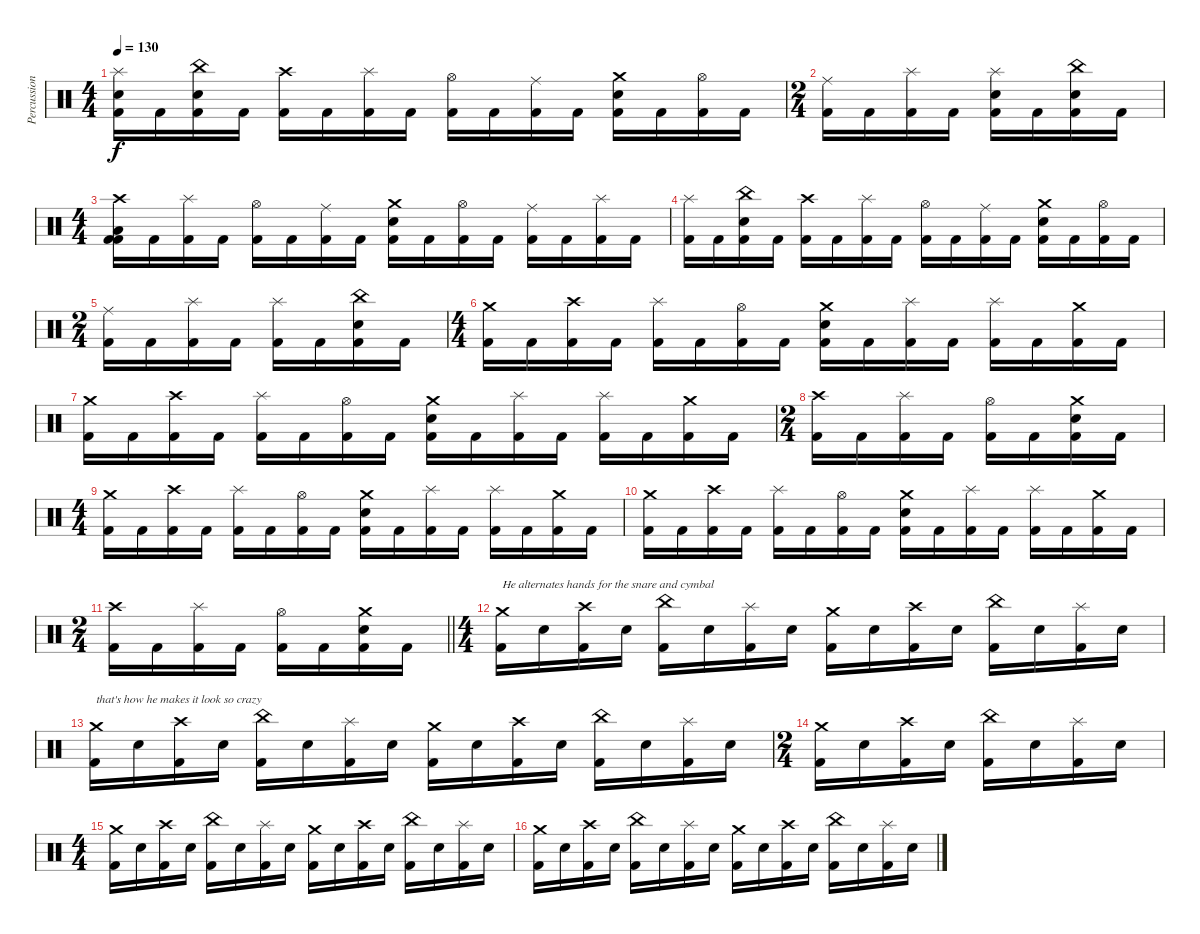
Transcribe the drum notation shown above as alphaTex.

\track ("Percussion" "Percussion") {instrument percussion}
\staff {score}
\articulation defaults
\ts (4 4)
\tempo 130
\clef neutral
\ks c
("Splash (hit)" "Electric Snare (hit)" "Kick (hit) 2").16{dy f} "Kick (hit) 2".16 ("China (hit)" "Electric Snare (hit)" "Kick (hit) 2").16 "Kick (hit) 2".16 ("Crash high (hit)" "Kick (hit) 2").16 "Kick (hit) 2".16 ("Splash (hit)" "Kick (hit) 2").16 "Kick (hit) 2".16 ("Hi-Hat (open)" "Kick (hit) 2").16 "Kick (hit) 2".16 ("Ride (middle)" "Kick (hit) 2").16 "Kick (hit) 2".16 ("Crash medium (hit)" "Electric Snare (hit)" "Kick (hit) 2").16 "Kick (hit) 2".16 ("Hi-Hat (open)" "Kick (hit) 2").16 "Kick (hit) 2".16 |
\ts (2 4)
("Ride (middle)" "Kick (hit) 2").16 "Kick (hit) 2".16 ("Splash (hit)" "Kick (hit) 2").16 "Kick (hit) 2".16 ("Splash (hit)" "Electric Snare (hit)" "Kick (hit) 2").16 "Kick (hit) 2".16 ("China (hit)" "Electric Snare (hit)" "Kick (hit) 2").16 "Kick (hit) 2".16 |
\ts (4 4)
("Crash high (hit)" "Low Floor Tom (hit)" "Kick (hit) 2" "Kick (hit) 2").16 "Kick (hit) 2".16 ("Splash (hit)" "Kick (hit) 2").16 "Kick (hit) 2".16 ("Hi-Hat (open)" "Kick (hit) 2").16 "Kick (hit) 2".16 ("Ride (middle)" "Kick (hit) 2").16 "Kick (hit) 2".16 ("Crash medium (hit)" "Electric Snare (hit)" "Kick (hit) 2").16 "Kick (hit) 2".16 ("Hi-Hat (open)" "Kick (hit) 2").16 "Kick (hit) 2".16 ("Ride (middle)" "Kick (hit) 2").16 "Kick (hit) 2".16 ("Splash (hit)" "Kick (hit) 2").16 "Kick (hit) 2".16 |
("Splash (hit)" "Kick (hit) 2").16 "Kick (hit) 2".16 ("China (hit)" "Electric Snare (hit)" "Kick (hit) 2").16 "Kick (hit) 2".16 ("Crash high (hit)" "Kick (hit) 2").16 "Kick (hit) 2".16 ("Splash (hit)" "Kick (hit) 2").16 "Kick (hit) 2".16 ("Hi-Hat (open)" "Kick (hit) 2").16 "Kick (hit) 2".16 ("Ride (middle)" "Kick (hit) 2").16 "Kick (hit) 2".16 ("Crash medium (hit)" "Electric Snare (hit)" "Kick (hit) 2").16 "Kick (hit) 2".16 ("Hi-Hat (open)" "Kick (hit) 2").16 "Kick (hit) 2".16 |
\ts (2 4)
("Ride (middle)" "Kick (hit) 2").16 "Kick (hit) 2".16 ("Splash (hit)" "Kick (hit) 2").16 "Kick (hit) 2".16 ("Splash (hit)" "Kick (hit) 2").16 "Kick (hit) 2".16 ("China (hit)" "Electric Snare (hit)" "Kick (hit) 2").16 "Kick (hit) 2".16 |
\ts (4 4)
("Crash medium (hit)" "Kick (hit) 2").16 "Kick (hit) 2".16 ("Crash high (hit)" "Kick (hit) 2").16 "Kick (hit) 2".16 ("Splash (hit)" "Kick (hit) 2").16 "Kick (hit) 2".16 ("Hi-Hat (open)" "Kick (hit) 2").16 "Kick (hit) 2".16 ("Crash medium (hit)" "Electric Snare (hit)" "Kick (hit) 2").16 "Kick (hit) 2".16 ("Splash (hit)" "Kick (hit) 2").16 "Kick (hit) 2".16 ("Splash (hit)" "Kick (hit) 2").16 "Kick (hit) 2".16 ("Crash medium (hit)" "Kick (hit) 2").16 "Kick (hit) 2".16 |
("Crash medium (hit)" "Kick (hit) 2").16 "Kick (hit) 2".16 ("Crash high (hit)" "Kick (hit) 2").16 "Kick (hit) 2".16 ("Splash (hit)" "Kick (hit) 2").16 "Kick (hit) 2".16 ("Hi-Hat (open)" "Kick (hit) 2").16 "Kick (hit) 2".16 ("Crash medium (hit)" "Electric Snare (hit)" "Kick (hit) 2").16 "Kick (hit) 2".16 ("Splash (hit)" "Kick (hit) 2").16 "Kick (hit) 2".16 ("Splash (hit)" "Kick (hit) 2").16 "Kick (hit) 2".16 ("Crash medium (hit)" "Kick (hit) 2").16 "Kick (hit) 2".16 |
\ts (2 4)
("Crash high (hit)" "Kick (hit) 2").16 "Kick (hit) 2".16 ("Splash (hit)" "Kick (hit) 2").16 "Kick (hit) 2".16 ("Hi-Hat (open)" "Kick (hit) 2").16 "Kick (hit) 2".16 ("Crash medium (hit)" "Electric Snare (hit)" "Kick (hit) 2").16 "Kick (hit) 2".16 |
\ts (4 4)
("Crash medium (hit)" "Kick (hit) 2").16 "Kick (hit) 2".16 ("Crash high (hit)" "Kick (hit) 2").16 "Kick (hit) 2".16 ("Splash (hit)" "Kick (hit) 2").16 "Kick (hit) 2".16 ("Hi-Hat (open)" "Kick (hit) 2").16 "Kick (hit) 2".16 ("Crash medium (hit)" "Electric Snare (hit)" "Kick (hit) 2").16 "Kick (hit) 2".16 ("Splash (hit)" "Kick (hit) 2").16 "Kick (hit) 2".16 ("Splash (hit)" "Kick (hit) 2").16 "Kick (hit) 2".16 ("Crash medium (hit)" "Kick (hit) 2").16 "Kick (hit) 2".16 |
("Crash medium (hit)" "Kick (hit) 2").16 "Kick (hit) 2".16 ("Crash high (hit)" "Kick (hit) 2").16 "Kick (hit) 2".16 ("Splash (hit)" "Kick (hit) 2").16 "Kick (hit) 2".16 ("Hi-Hat (open)" "Kick (hit) 2").16 "Kick (hit) 2".16 ("Crash medium (hit)" "Electric Snare (hit)" "Kick (hit) 2").16 "Kick (hit) 2".16 ("Splash (hit)" "Kick (hit) 2").16 "Kick (hit) 2".16 ("Splash (hit)" "Kick (hit) 2").16 "Kick (hit) 2".16 ("Crash medium (hit)" "Kick (hit) 2").16 "Kick (hit) 2".16 |
\ts (2 4)
\barLineRight lightlight
("Crash high (hit)" "Kick (hit) 2").16 "Kick (hit) 2".16 ("Splash (hit)" "Kick (hit) 2").16 "Kick (hit) 2".16 ("Hi-Hat (open)" "Kick (hit) 2").16 "Kick (hit) 2".16 ("Crash medium (hit)" "Electric Snare (hit)" "Kick (hit) 2").16 "Kick (hit) 2".16 |
\ts (4 4)
\section ("" "")
("Crash medium (hit)" "Kick (hit) 2").16{txt "He alternates hands for the snare and cymbal"} "Electric Snare (hit)".16 ("Crash high (hit)" "Kick (hit) 2").16 "Electric Snare (hit)".16 ("China (hit)" "Kick (hit) 2").16 "Electric Snare (hit)".16 ("Splash (hit)" "Kick (hit) 2").16 "Electric Snare (hit)".16 ("Crash medium (hit)" "Kick (hit) 2").16 "Electric Snare (hit)".16 ("Crash high (hit)" "Kick (hit) 2").16 "Electric Snare (hit)".16 ("China (hit)" "Kick (hit) 2").16 "Electric Snare (hit)".16 ("Splash (hit)" "Kick (hit) 2").16 "Electric Snare (hit)".16 |
("Crash medium (hit)" "Kick (hit) 2").16{txt "that's how he makes it look so crazy"} "Electric Snare (hit)".16 ("Crash high (hit)" "Kick (hit) 2").16 "Electric Snare (hit)".16 ("China (hit)" "Kick (hit) 2").16 "Electric Snare (hit)".16 ("Splash (hit)" "Kick (hit) 2").16 "Electric Snare (hit)".16 ("Crash medium (hit)" "Kick (hit) 2").16 "Electric Snare (hit)".16 ("Crash high (hit)" "Kick (hit) 2").16 "Electric Snare (hit)".16 ("China (hit)" "Kick (hit) 2").16 "Electric Snare (hit)".16 ("Splash (hit)" "Kick (hit) 2").16 "Electric Snare (hit)".16 |
\ts (2 4)
("Crash medium (hit)" "Kick (hit) 2").16 "Electric Snare (hit)".16 ("Crash high (hit)" "Kick (hit) 2").16 "Electric Snare (hit)".16 ("China (hit)" "Kick (hit) 2").16 "Electric Snare (hit)".16 ("Splash (hit)" "Kick (hit) 2").16 "Electric Snare (hit)".16 |
\ts (4 4)
("Crash medium (hit)" "Kick (hit) 2").16 "Electric Snare (hit)".16 ("Crash high (hit)" "Kick (hit) 2").16 "Electric Snare (hit)".16 ("China (hit)" "Kick (hit) 2").16 "Electric Snare (hit)".16 ("Splash (hit)" "Kick (hit) 2").16 "Electric Snare (hit)".16 ("Crash medium (hit)" "Kick (hit) 2").16 "Electric Snare (hit)".16 ("Crash high (hit)" "Kick (hit) 2").16 "Electric Snare (hit)".16 ("China (hit)" "Kick (hit) 2").16 "Electric Snare (hit)".16 ("Splash (hit)" "Kick (hit) 2").16 "Electric Snare (hit)".16 |
("Crash medium (hit)" "Kick (hit) 2").16 "Electric Snare (hit)".16 ("Crash high (hit)" "Kick (hit) 2").16 "Electric Snare (hit)".16 ("China (hit)" "Kick (hit) 2").16 "Electric Snare (hit)".16 ("Splash (hit)" "Kick (hit) 2").16 "Electric Snare (hit)".16 ("Crash medium (hit)" "Kick (hit) 2").16 "Electric Snare (hit)".16 ("Crash high (hit)" "Kick (hit) 2").16 "Electric Snare (hit)".16 ("China (hit)" "Kick (hit) 2").16 "Electric Snare (hit)".16 ("Splash (hit)" "Kick (hit) 2").16 "Electric Snare (hit)".16
